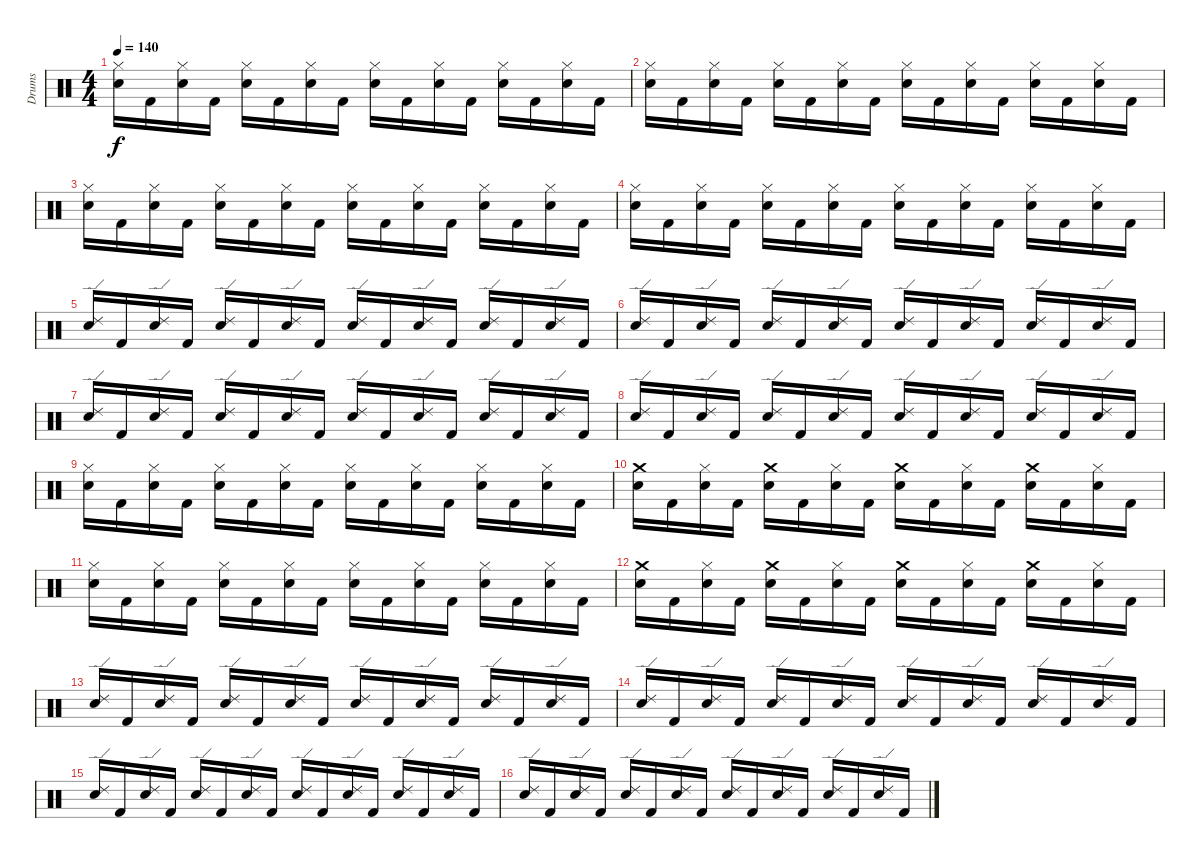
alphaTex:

\track ("Drums" "Drums") {instrument percussion}
\staff {score}
\articulation defaults
\ts (4 4)
\tempo 140
\clef neutral
\ks c
("Hi-Hat (closed)" "Electric Snare (hit)").16{dy f} "Kick (hit) 2".16 ("Electric Snare (hit)" "Hi-Hat (closed)").16 "Kick (hit) 2".16 ("Hi-Hat (closed)" "Electric Snare (hit)").16 "Kick (hit) 2".16 ("Electric Snare (hit)" "Hi-Hat (closed)").16 "Kick (hit) 2".16 ("Hi-Hat (closed)" "Electric Snare (hit)").16 "Kick (hit) 2".16 ("Electric Snare (hit)" "Hi-Hat (closed)").16 "Kick (hit) 2".16 ("Hi-Hat (closed)" "Electric Snare (hit)").16 "Kick (hit) 2".16 ("Electric Snare (hit)" "Hi-Hat (closed)").16 "Kick (hit) 2".16 |
("Hi-Hat (closed)" "Electric Snare (hit)").16 "Kick (hit) 2".16 ("Electric Snare (hit)" "Hi-Hat (closed)").16 "Kick (hit) 2".16 ("Hi-Hat (closed)" "Electric Snare (hit)").16 "Kick (hit) 2".16 ("Electric Snare (hit)" "Hi-Hat (closed)").16 "Kick (hit) 2".16 ("Hi-Hat (closed)" "Electric Snare (hit)").16 "Kick (hit) 2".16 ("Electric Snare (hit)" "Hi-Hat (closed)").16 "Kick (hit) 2".16 ("Hi-Hat (closed)" "Electric Snare (hit)").16 "Kick (hit) 2".16 ("Electric Snare (hit)" "Hi-Hat (closed)").16 "Kick (hit) 2".16 |
("Hi-Hat (closed)" "Electric Snare (hit)").16 "Kick (hit) 2".16 ("Electric Snare (hit)" "Hi-Hat (closed)").16 "Kick (hit) 2".16 ("Hi-Hat (closed)" "Electric Snare (hit)").16 "Kick (hit) 2".16 ("Electric Snare (hit)" "Hi-Hat (closed)").16 "Kick (hit) 2".16 ("Hi-Hat (closed)" "Electric Snare (hit)").16 "Kick (hit) 2".16 ("Electric Snare (hit)" "Hi-Hat (closed)").16 "Kick (hit) 2".16 ("Hi-Hat (closed)" "Electric Snare (hit)").16 "Kick (hit) 2".16 ("Electric Snare (hit)" "Hi-Hat (closed)").16 "Kick (hit) 2".16 |
("Hi-Hat (closed)" "Electric Snare (hit)").16 "Kick (hit) 2".16 ("Electric Snare (hit)" "Hi-Hat (closed)").16 "Kick (hit) 2".16 ("Hi-Hat (closed)" "Electric Snare (hit)").16 "Kick (hit) 2".16 ("Electric Snare (hit)" "Hi-Hat (closed)").16 "Kick (hit) 2".16 ("Hi-Hat (closed)" "Electric Snare (hit)").16 "Kick (hit) 2".16 ("Electric Snare (hit)" "Hi-Hat (closed)").16 "Kick (hit) 2".16 ("Hi-Hat (closed)" "Electric Snare (hit)").16 "Kick (hit) 2".16 ("Electric Snare (hit)" "Hi-Hat (closed)").16 "Kick (hit) 2".16 |
("Ride (edge) 2" "Electric Snare (hit)").16 "Kick (hit) 2".16 ("Electric Snare (hit)" "Ride (edge) 2").16 "Kick (hit) 2".16 ("Ride (edge) 2" "Electric Snare (hit)").16 "Kick (hit) 2".16 ("Electric Snare (hit)" "Ride (edge) 2").16 "Kick (hit) 2".16 ("Ride (edge) 2" "Electric Snare (hit)").16 "Kick (hit) 2".16 ("Ride (edge) 2" "Electric Snare (hit)").16 "Kick (hit) 2".16 ("Electric Snare (hit)" "Ride (edge) 2").16 "Kick (hit) 2".16 ("Ride (edge) 2" "Electric Snare (hit)").16 "Kick (hit) 2".16 |
("Ride (edge) 2" "Electric Snare (hit)").16 "Kick (hit) 2".16 ("Electric Snare (hit)" "Ride (edge) 2").16 "Kick (hit) 2".16 ("Ride (edge) 2" "Electric Snare (hit)").16 "Kick (hit) 2".16 ("Electric Snare (hit)" "Ride (edge) 2").16 "Kick (hit) 2".16 ("Ride (edge) 2" "Electric Snare (hit)").16 "Kick (hit) 2".16 ("Ride (edge) 2" "Electric Snare (hit)").16 "Kick (hit) 2".16 ("Electric Snare (hit)" "Ride (edge) 2").16 "Kick (hit) 2".16 ("Ride (edge) 2" "Electric Snare (hit)").16 "Kick (hit) 2".16 |
("Ride (edge) 2" "Electric Snare (hit)").16 "Kick (hit) 2".16 ("Electric Snare (hit)" "Ride (edge) 2").16 "Kick (hit) 2".16 ("Ride (edge) 2" "Electric Snare (hit)").16 "Kick (hit) 2".16 ("Electric Snare (hit)" "Ride (edge) 2").16 "Kick (hit) 2".16 ("Ride (edge) 2" "Electric Snare (hit)").16 "Kick (hit) 2".16 ("Ride (edge) 2" "Electric Snare (hit)").16 "Kick (hit) 2".16 ("Electric Snare (hit)" "Ride (edge) 2").16 "Kick (hit) 2".16 ("Ride (edge) 2" "Electric Snare (hit)").16 "Kick (hit) 2".16 |
("Ride (edge) 2" "Electric Snare (hit)").16 "Kick (hit) 2".16 ("Electric Snare (hit)" "Ride (edge) 2").16 "Kick (hit) 2".16 ("Ride (edge) 2" "Electric Snare (hit)").16 "Kick (hit) 2".16 ("Electric Snare (hit)" "Ride (edge) 2").16 "Kick (hit) 2".16 ("Ride (edge) 2" "Electric Snare (hit)").16 "Kick (hit) 2".16 ("Ride (edge) 2" "Electric Snare (hit)").16 "Kick (hit) 2".16 ("Electric Snare (hit)" "Ride (edge) 2").16 "Kick (hit) 2".16 ("Ride (edge) 2" "Electric Snare (hit)").16 "Kick (hit) 2".16 |
("Hi-Hat (closed)" "Electric Snare (hit)").16 "Kick (hit) 2".16 ("Electric Snare (hit)" "Hi-Hat (closed)").16 "Kick (hit) 2".16 ("Hi-Hat (closed)" "Electric Snare (hit)").16 "Kick (hit) 2".16 ("Electric Snare (hit)" "Hi-Hat (closed)").16 "Kick (hit) 2".16 ("Hi-Hat (closed)" "Electric Snare (hit)").16 "Kick (hit) 2".16 ("Electric Snare (hit)" "Hi-Hat (closed)").16 "Kick (hit) 2".16 ("Hi-Hat (closed)" "Electric Snare (hit)").16 "Kick (hit) 2".16 ("Electric Snare (hit)" "Hi-Hat (closed)").16 "Kick (hit) 2".16 |
("Crash medium (hit)" "Electric Snare (hit)").16 "Kick (hit) 2".16 ("Electric Snare (hit)" "Hi-Hat (closed)").16 "Kick (hit) 2".16 ("Crash medium (hit)" "Electric Snare (hit)").16 "Kick (hit) 2".16 ("Electric Snare (hit)" "Hi-Hat (closed)").16 "Kick (hit) 2".16 ("Crash medium (hit)" "Electric Snare (hit)").16 "Kick (hit) 2".16 ("Electric Snare (hit)" "Hi-Hat (closed)").16 "Kick (hit) 2".16 ("Crash medium (hit)" "Electric Snare (hit)").16 "Kick (hit) 2".16 ("Electric Snare (hit)" "Hi-Hat (closed)").16 "Kick (hit) 2".16 |
("Hi-Hat (closed)" "Electric Snare (hit)").16 "Kick (hit) 2".16 ("Electric Snare (hit)" "Hi-Hat (closed)").16 "Kick (hit) 2".16 ("Hi-Hat (closed)" "Electric Snare (hit)").16 "Kick (hit) 2".16 ("Electric Snare (hit)" "Hi-Hat (closed)").16 "Kick (hit) 2".16 ("Hi-Hat (closed)" "Electric Snare (hit)").16 "Kick (hit) 2".16 ("Electric Snare (hit)" "Hi-Hat (closed)").16 "Kick (hit) 2".16 ("Hi-Hat (closed)" "Electric Snare (hit)").16 "Kick (hit) 2".16 ("Electric Snare (hit)" "Hi-Hat (closed)").16 "Kick (hit) 2".16 |
("Crash medium (hit)" "Electric Snare (hit)").16 "Kick (hit) 2".16 ("Electric Snare (hit)" "Hi-Hat (closed)").16 "Kick (hit) 2".16 ("Crash medium (hit)" "Electric Snare (hit)").16 "Kick (hit) 2".16 ("Electric Snare (hit)" "Hi-Hat (closed)").16 "Kick (hit) 2".16 ("Crash medium (hit)" "Electric Snare (hit)").16 "Kick (hit) 2".16 ("Electric Snare (hit)" "Hi-Hat (closed)").16 "Kick (hit) 2".16 ("Crash medium (hit)" "Electric Snare (hit)").16 "Kick (hit) 2".16 ("Electric Snare (hit)" "Hi-Hat (closed)").16 "Kick (hit) 2".16 |
("Ride (edge) 2" "Electric Snare (hit)").16 "Kick (hit) 2".16 ("Electric Snare (hit)" "Ride (edge) 2").16 "Kick (hit) 2".16 ("Ride (edge) 2" "Electric Snare (hit)").16 "Kick (hit) 2".16 ("Electric Snare (hit)" "Ride (edge) 2").16 "Kick (hit) 2".16 ("Ride (edge) 2" "Electric Snare (hit)").16 "Kick (hit) 2".16 ("Ride (edge) 2" "Electric Snare (hit)").16 "Kick (hit) 2".16 ("Electric Snare (hit)" "Ride (edge) 2").16 "Kick (hit) 2".16 ("Ride (edge) 2" "Electric Snare (hit)").16 "Kick (hit) 2".16 |
("Ride (edge) 2" "Electric Snare (hit)").16 "Kick (hit) 2".16 ("Electric Snare (hit)" "Ride (edge) 2").16 "Kick (hit) 2".16 ("Ride (edge) 2" "Electric Snare (hit)").16 "Kick (hit) 2".16 ("Electric Snare (hit)" "Ride (edge) 2").16 "Kick (hit) 2".16 ("Ride (edge) 2" "Electric Snare (hit)").16 "Kick (hit) 2".16 ("Ride (edge) 2" "Electric Snare (hit)").16 "Kick (hit) 2".16 ("Electric Snare (hit)" "Ride (edge) 2").16 "Kick (hit) 2".16 ("Ride (edge) 2" "Electric Snare (hit)").16 "Kick (hit) 2".16 |
("Ride (edge) 2" "Electric Snare (hit)").16 "Kick (hit) 2".16 ("Electric Snare (hit)" "Ride (edge) 2").16 "Kick (hit) 2".16 ("Ride (edge) 2" "Electric Snare (hit)").16 "Kick (hit) 2".16 ("Electric Snare (hit)" "Ride (edge) 2").16 "Kick (hit) 2".16 ("Ride (edge) 2" "Electric Snare (hit)").16 "Kick (hit) 2".16 ("Ride (edge) 2" "Electric Snare (hit)").16 "Kick (hit) 2".16 ("Electric Snare (hit)" "Ride (edge) 2").16 "Kick (hit) 2".16 ("Ride (edge) 2" "Electric Snare (hit)").16 "Kick (hit) 2".16 |
("Ride (edge) 2" "Electric Snare (hit)").16 "Kick (hit) 2".16 ("Electric Snare (hit)" "Ride (edge) 2").16 "Kick (hit) 2".16 ("Ride (edge) 2" "Electric Snare (hit)").16 "Kick (hit) 2".16 ("Electric Snare (hit)" "Ride (edge) 2").16 "Kick (hit) 2".16 ("Ride (edge) 2" "Electric Snare (hit)").16 "Kick (hit) 2".16 ("Ride (edge) 2" "Electric Snare (hit)").16 "Kick (hit) 2".16 ("Electric Snare (hit)" "Ride (edge) 2").16 "Kick (hit) 2".16 ("Ride (edge) 2" "Electric Snare (hit)").16 "Kick (hit) 2".16
